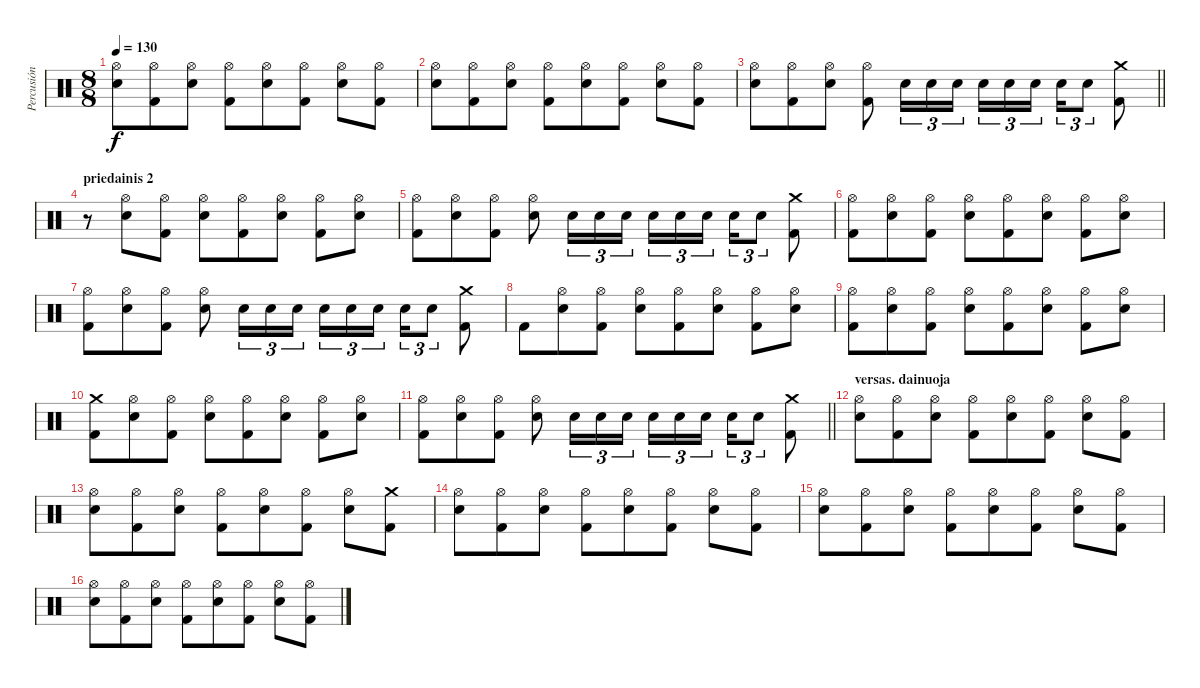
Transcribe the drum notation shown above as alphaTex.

\track ("Percusión" "Percusión") {instrument percussion}
\staff {score}
\articulation defaults
\ts (8 8)
\tempo 130
\clef neutral
\ks c
("Hi-Hat (open)" "Snare (hit) 2").8{dy f} ("Hi-Hat (open)" "Kick (hit) 2").8 ("Hi-Hat (open)" "Snare (hit) 2").8 ("Hi-Hat (open)" "Kick (hit) 2").8 ("Hi-Hat (open)" "Snare (hit) 2").8 ("Hi-Hat (open)" "Kick (hit) 2").8 ("Hi-Hat (open)" "Snare (hit) 2").8 ("Hi-Hat (open)" "Kick (hit) 2").8 |
("Hi-Hat (open)" "Snare (hit) 2").8 ("Hi-Hat (open)" "Kick (hit) 2").8 ("Hi-Hat (open)" "Snare (hit) 2").8 ("Hi-Hat (open)" "Kick (hit) 2").8 ("Hi-Hat (open)" "Snare (hit) 2").8 ("Hi-Hat (open)" "Kick (hit) 2").8 ("Hi-Hat (open)" "Snare (hit) 2").8 ("Hi-Hat (open)" "Kick (hit) 2").8 |
\barLineRight lightlight
("Hi-Hat (open)" "Snare (hit) 2").8 ("Hi-Hat (open)" "Kick (hit) 2").8 ("Hi-Hat (open)" "Snare (hit) 2").8 ("Hi-Hat (open)" "Kick (hit) 2").8 "Snare (hit) 2".16{tu (3 2)} "Snare (hit) 2".16{tu (3 2)} "Snare (hit) 2".16{tu (3 2)} "Snare (hit) 2".16{tu (3 2)} "Snare (hit) 2".16{tu (3 2)} "Snare (hit) 2".16{tu (3 2)} "Snare (hit) 2".16{tu (3 2)} "Snare (hit) 2".8{tu (3 2)} ("Crash medium (hit)" "Kick (hit) 2").8 |
\section ("" "priedainis 2")
r.8 ("Hi-Hat (open)" "Snare (hit) 2").8 ("Hi-Hat (open)" "Kick (hit) 2").8 ("Hi-Hat (open)" "Snare (hit) 2").8 ("Hi-Hat (open)" "Kick (hit) 2").8 ("Hi-Hat (open)" "Snare (hit) 2").8 ("Hi-Hat (open)" "Kick (hit) 2").8 ("Hi-Hat (open)" "Snare (hit) 2").8 |
("Hi-Hat (open)" "Kick (hit) 2").8 ("Hi-Hat (open)" "Snare (hit) 2").8 ("Hi-Hat (open)" "Kick (hit) 2").8 ("Hi-Hat (open)" "Snare (hit) 2").8 "Snare (hit) 2".16{tu (3 2)} "Snare (hit) 2".16{tu (3 2)} "Snare (hit) 2".16{tu (3 2)} "Snare (hit) 2".16{tu (3 2)} "Snare (hit) 2".16{tu (3 2)} "Snare (hit) 2".16{tu (3 2)} "Snare (hit) 2".16{tu (3 2)} "Snare (hit) 2".8{tu (3 2)} ("Crash medium (hit)" "Kick (hit) 2").8 |
("Hi-Hat (open)" "Kick (hit) 2").8 ("Hi-Hat (open)" "Snare (hit) 2").8 ("Hi-Hat (open)" "Kick (hit) 2").8 ("Hi-Hat (open)" "Snare (hit) 2").8 ("Hi-Hat (open)" "Kick (hit) 2").8 ("Hi-Hat (open)" "Snare (hit) 2").8 ("Hi-Hat (open)" "Kick (hit) 2").8 ("Hi-Hat (open)" "Snare (hit) 2").8 |
("Hi-Hat (open)" "Kick (hit) 2").8 ("Hi-Hat (open)" "Snare (hit) 2").8 ("Hi-Hat (open)" "Kick (hit) 2").8 ("Hi-Hat (open)" "Snare (hit) 2").8 "Snare (hit) 2".16{tu (3 2)} "Snare (hit) 2".16{tu (3 2)} "Snare (hit) 2".16{tu (3 2)} "Snare (hit) 2".16{tu (3 2)} "Snare (hit) 2".16{tu (3 2)} "Snare (hit) 2".16{tu (3 2)} "Snare (hit) 2".16{tu (3 2)} "Snare (hit) 2".8{tu (3 2)} ("Crash medium (hit)" "Kick (hit) 2").8 |
"Kick (hit) 2".8 ("Hi-Hat (open)" "Snare (hit) 2").8 ("Hi-Hat (open)" "Kick (hit) 2").8 ("Hi-Hat (open)" "Snare (hit) 2").8 ("Hi-Hat (open)" "Kick (hit) 2").8 ("Hi-Hat (open)" "Snare (hit) 2").8 ("Hi-Hat (open)" "Kick (hit) 2").8 ("Hi-Hat (open)" "Snare (hit) 2").8 |
("Hi-Hat (open)" "Kick (hit) 2").8 ("Hi-Hat (open)" "Snare (hit) 2").8 ("Hi-Hat (open)" "Kick (hit) 2").8 ("Hi-Hat (open)" "Snare (hit) 2").8 ("Hi-Hat (open)" "Kick (hit) 2").8 ("Hi-Hat (open)" "Snare (hit) 2").8 ("Hi-Hat (open)" "Kick (hit) 2").8 ("Hi-Hat (open)" "Snare (hit) 2").8 |
("Crash medium (hit)" "Kick (hit) 2").8 ("Hi-Hat (open)" "Snare (hit) 2").8 ("Hi-Hat (open)" "Kick (hit) 2").8 ("Hi-Hat (open)" "Snare (hit) 2").8 ("Hi-Hat (open)" "Kick (hit) 2").8 ("Hi-Hat (open)" "Snare (hit) 2").8 ("Hi-Hat (open)" "Kick (hit) 2").8 ("Hi-Hat (open)" "Snare (hit) 2").8 |
\barLineRight lightlight
("Hi-Hat (open)" "Kick (hit) 2").8 ("Hi-Hat (open)" "Snare (hit) 2").8 ("Hi-Hat (open)" "Kick (hit) 2").8 ("Hi-Hat (open)" "Snare (hit) 2").8 "Snare (hit) 2".16{tu (3 2)} "Snare (hit) 2".16{tu (3 2)} "Snare (hit) 2".16{tu (3 2)} "Snare (hit) 2".16{tu (3 2)} "Snare (hit) 2".16{tu (3 2)} "Snare (hit) 2".16{tu (3 2)} "Snare (hit) 2".16{tu (3 2)} "Snare (hit) 2".8{tu (3 2)} ("Crash medium (hit)" "Kick (hit) 2").8 |
\section ("" "versas. dainuoja")
("Hi-Hat (open)" "Snare (hit) 2").8 ("Hi-Hat (open)" "Kick (hit) 2").8 ("Hi-Hat (open)" "Snare (hit) 2").8 ("Hi-Hat (open)" "Kick (hit) 2").8 ("Hi-Hat (open)" "Snare (hit) 2").8 ("Hi-Hat (open)" "Kick (hit) 2").8 ("Hi-Hat (open)" "Snare (hit) 2").8 ("Hi-Hat (open)" "Kick (hit) 2").8 |
("Hi-Hat (open)" "Snare (hit) 2").8 ("Hi-Hat (open)" "Kick (hit) 2").8 ("Hi-Hat (open)" "Snare (hit) 2").8 ("Hi-Hat (open)" "Kick (hit) 2").8 ("Hi-Hat (open)" "Snare (hit) 2").8 ("Hi-Hat (open)" "Kick (hit) 2").8 ("Hi-Hat (open)" "Snare (hit) 2").8 ("Crash medium (hit)" "Kick (hit) 2").8 |
("Hi-Hat (open)" "Snare (hit) 2").8 ("Hi-Hat (open)" "Kick (hit) 2").8 ("Hi-Hat (open)" "Snare (hit) 2").8 ("Hi-Hat (open)" "Kick (hit) 2").8 ("Hi-Hat (open)" "Snare (hit) 2").8 ("Hi-Hat (open)" "Kick (hit) 2").8 ("Hi-Hat (open)" "Snare (hit) 2").8 ("Hi-Hat (open)" "Kick (hit) 2").8 |
("Hi-Hat (open)" "Snare (hit) 2").8 ("Hi-Hat (open)" "Kick (hit) 2").8 ("Hi-Hat (open)" "Snare (hit) 2").8 ("Hi-Hat (open)" "Kick (hit) 2").8 ("Hi-Hat (open)" "Snare (hit) 2").8 ("Hi-Hat (open)" "Kick (hit) 2").8 ("Hi-Hat (open)" "Snare (hit) 2").8 ("Hi-Hat (open)" "Kick (hit) 2").8 |
("Hi-Hat (open)" "Snare (hit) 2").8 ("Hi-Hat (open)" "Kick (hit) 2").8 ("Hi-Hat (open)" "Snare (hit) 2").8 ("Hi-Hat (open)" "Kick (hit) 2").8 ("Hi-Hat (open)" "Snare (hit) 2").8 ("Hi-Hat (open)" "Kick (hit) 2").8 ("Hi-Hat (open)" "Snare (hit) 2").8 ("Hi-Hat (open)" "Kick (hit) 2").8
